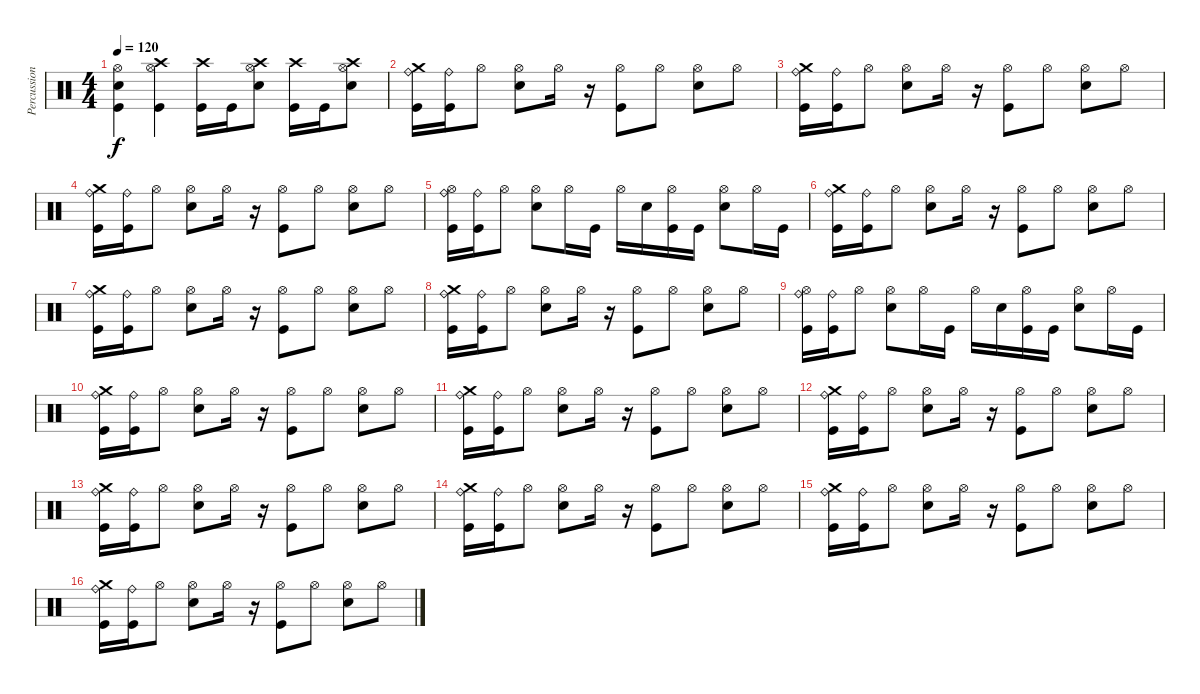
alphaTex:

\track ("Percussion" "Percussion") {instrument percussion}
\staff {score}
\articulation defaults
\ts (4 4)
\tempo 120
\clef neutral
\ks c
("Hi-Hat (open)" "Electric Snare (hit)" "Kick (hit)").4{dy f} ("Crash high (hit)" "Hi-Hat (open)" "Kick (hit)").4 ("Crash high (hit)" "Kick (hit)").16 "Kick (hit)".16 ("Crash high (hit)" "Hi-Hat (open)" "Electric Snare (hit)").8 ("Crash high (hit)" "Kick (hit)").16 "Kick (hit)".16 ("Crash high (hit)" "Hi-Hat (open)" "Electric Snare (hit)").8 |
("Kick (hit)" "Ride (bell)" "Crash medium (hit)").16 ("Kick (hit)" "Ride (bell)").16 "Hi-Hat (open)".8 ("Hi-Hat (open)" "Electric Snare (hit)").8 "Hi-Hat (open)".16 r.16 ("Kick (hit)" "Hi-Hat (open)").8 "Hi-Hat (open)".8 ("Hi-Hat (open)" "Electric Snare (hit)").8 "Hi-Hat (open)".8 |
("Kick (hit)" "Ride (bell)" "Crash medium (hit)").16 ("Kick (hit)" "Ride (bell)").16 "Hi-Hat (open)".8 ("Hi-Hat (open)" "Electric Snare (hit)").8 "Hi-Hat (open)".16 r.16 ("Kick (hit)" "Hi-Hat (open)").8 "Hi-Hat (open)".8 ("Hi-Hat (open)" "Electric Snare (hit)").8 "Hi-Hat (open)".8 |
("Kick (hit)" "Ride (bell)" "Crash medium (hit)").16 ("Kick (hit)" "Ride (bell)").16 "Hi-Hat (open)".8 ("Hi-Hat (open)" "Electric Snare (hit)").8 "Hi-Hat (open)".16 r.16 ("Kick (hit)" "Hi-Hat (open)").8 "Hi-Hat (open)".8 ("Hi-Hat (open)" "Electric Snare (hit)").8 "Hi-Hat (open)".8 |
("Kick (hit)" "Ride (bell)" "Hi-Hat (open)").16 ("Kick (hit)" "Ride (bell)").16 "Hi-Hat (open)".8 ("Hi-Hat (open)" "Electric Snare (hit)").8 "Hi-Hat (open)".16 "Kick (hit)".16 "Hi-Hat (open)".16 "Electric Snare (hit)".16 ("Kick (hit)" "Hi-Hat (open)").16 "Kick (hit)".16 ("Hi-Hat (open)" "Electric Snare (hit)").8 "Hi-Hat (open)".16 "Kick (hit)".16 |
("Kick (hit)" "Ride (bell)" "Crash medium (hit)").16 ("Kick (hit)" "Ride (bell)").16 "Hi-Hat (open)".8 ("Hi-Hat (open)" "Electric Snare (hit)").8 "Hi-Hat (open)".16 r.16 ("Kick (hit)" "Hi-Hat (open)").8 "Hi-Hat (open)".8 ("Hi-Hat (open)" "Electric Snare (hit)").8 "Hi-Hat (open)".8 |
("Kick (hit)" "Ride (bell)" "Crash medium (hit)").16 ("Kick (hit)" "Ride (bell)").16 "Hi-Hat (open)".8 ("Hi-Hat (open)" "Electric Snare (hit)").8 "Hi-Hat (open)".16 r.16 ("Kick (hit)" "Hi-Hat (open)").8 "Hi-Hat (open)".8 ("Hi-Hat (open)" "Electric Snare (hit)").8 "Hi-Hat (open)".8 |
("Kick (hit)" "Ride (bell)" "Crash medium (hit)").16 ("Kick (hit)" "Ride (bell)").16 "Hi-Hat (open)".8 ("Hi-Hat (open)" "Electric Snare (hit)").8 "Hi-Hat (open)".16 r.16 ("Kick (hit)" "Hi-Hat (open)").8 "Hi-Hat (open)".8 ("Hi-Hat (open)" "Electric Snare (hit)").8 "Hi-Hat (open)".8 |
("Kick (hit)" "Ride (bell)" "Hi-Hat (open)").16 ("Kick (hit)" "Ride (bell)").16 "Hi-Hat (open)".8 ("Hi-Hat (open)" "Electric Snare (hit)").8 "Hi-Hat (open)".16 "Kick (hit)".16 "Hi-Hat (open)".16 "Electric Snare (hit)".16 ("Kick (hit)" "Hi-Hat (open)").16 "Kick (hit)".16 ("Hi-Hat (open)" "Electric Snare (hit)").8 "Hi-Hat (open)".16 "Kick (hit)".16 |
("Kick (hit)" "Ride (bell)" "Crash medium (hit)").16 ("Kick (hit)" "Ride (bell)").16 "Hi-Hat (open)".8 ("Hi-Hat (open)" "Electric Snare (hit)").8 "Hi-Hat (open)".16 r.16 ("Kick (hit)" "Hi-Hat (open)").8 "Hi-Hat (open)".8 ("Hi-Hat (open)" "Electric Snare (hit)").8 "Hi-Hat (open)".8 |
("Kick (hit)" "Ride (bell)" "Crash medium (hit)").16 ("Kick (hit)" "Ride (bell)").16 "Hi-Hat (open)".8 ("Hi-Hat (open)" "Electric Snare (hit)").8 "Hi-Hat (open)".16 r.16 ("Kick (hit)" "Hi-Hat (open)").8 "Hi-Hat (open)".8 ("Hi-Hat (open)" "Electric Snare (hit)").8 "Hi-Hat (open)".8 |
("Kick (hit)" "Ride (bell)" "Crash medium (hit)").16 ("Kick (hit)" "Ride (bell)").16 "Hi-Hat (open)".8 ("Hi-Hat (open)" "Electric Snare (hit)").8 "Hi-Hat (open)".16 r.16 ("Kick (hit)" "Hi-Hat (open)").8 "Hi-Hat (open)".8 ("Hi-Hat (open)" "Electric Snare (hit)").8 "Hi-Hat (open)".8 |
("Kick (hit)" "Ride (bell)" "Crash medium (hit)").16 ("Kick (hit)" "Ride (bell)").16 "Hi-Hat (open)".8 ("Hi-Hat (open)" "Electric Snare (hit)").8 "Hi-Hat (open)".16 r.16 ("Kick (hit)" "Hi-Hat (open)").8 "Hi-Hat (open)".8 ("Hi-Hat (open)" "Electric Snare (hit)").8 "Hi-Hat (open)".8 |
("Kick (hit)" "Ride (bell)" "Crash medium (hit)").16 ("Kick (hit)" "Ride (bell)").16 "Hi-Hat (open)".8 ("Hi-Hat (open)" "Electric Snare (hit)").8 "Hi-Hat (open)".16 r.16 ("Kick (hit)" "Hi-Hat (open)").8 "Hi-Hat (open)".8 ("Hi-Hat (open)" "Electric Snare (hit)").8 "Hi-Hat (open)".8 |
("Kick (hit)" "Ride (bell)" "Crash medium (hit)").16 ("Kick (hit)" "Ride (bell)").16 "Hi-Hat (open)".8 ("Hi-Hat (open)" "Electric Snare (hit)").8 "Hi-Hat (open)".16 r.16 ("Kick (hit)" "Hi-Hat (open)").8 "Hi-Hat (open)".8 ("Hi-Hat (open)" "Electric Snare (hit)").8 "Hi-Hat (open)".8 |
("Kick (hit)" "Ride (bell)" "Crash medium (hit)").16 ("Kick (hit)" "Ride (bell)").16 "Hi-Hat (open)".8 ("Hi-Hat (open)" "Electric Snare (hit)").8 "Hi-Hat (open)".16 r.16 ("Kick (hit)" "Hi-Hat (open)").8 "Hi-Hat (open)".8 ("Hi-Hat (open)" "Electric Snare (hit)").8 "Hi-Hat (open)".8
